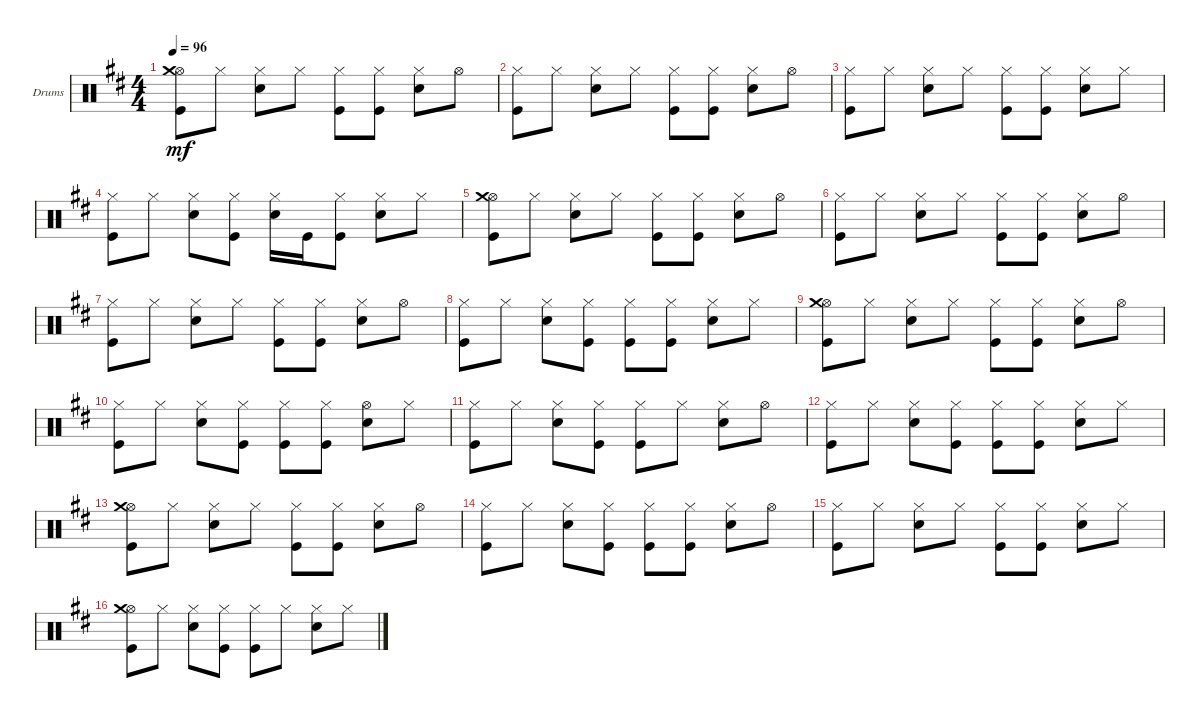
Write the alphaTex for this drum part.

\defaultSystemsLayout 4
\bracketExtendMode groupsimilarinstruments
\firstSystemTrackNameOrientation horizontal
\otherSystemsTrackNameOrientation horizontal
\track ("Drumkit" "Drums") {instrument percussion}
\staff {score}
\articulation defaults
\ts (4 4)
\tempo 96
\clef neutral
\ks d
("Hi-Hat (open)" "Crash medium (hit)" "Kick (hit)").8{dy mf} "Hi-Hat (closed)".8 ("Hi-Hat (closed)" "Snare (hit) 2").8 "Hi-Hat (closed)".8 ("Hi-Hat (closed)" "Kick (hit)").8 ("Hi-Hat (closed)" "Kick (hit)").8 ("Hi-Hat (closed)" "Snare (hit) 2").8 "Hi-Hat (open)".8 |
("Hi-Hat (closed)" "Kick (hit)").8 "Hi-Hat (closed)".8 ("Hi-Hat (closed)" "Snare (hit) 2").8 "Hi-Hat (closed)".8 ("Hi-Hat (closed)" "Kick (hit)").8 ("Hi-Hat (closed)" "Kick (hit)").8 ("Hi-Hat (closed)" "Snare (hit) 2").8 "Hi-Hat (open)".8 |
("Hi-Hat (closed)" "Kick (hit)").8 "Hi-Hat (closed)".8 ("Hi-Hat (closed)" "Snare (hit) 2").8 "Hi-Hat (closed)".8 ("Hi-Hat (closed)" "Kick (hit)").8 ("Hi-Hat (closed)" "Kick (hit)").8 ("Hi-Hat (closed)" "Snare (hit) 2").8 "Hi-Hat (closed)".8 |
("Hi-Hat (closed)" "Kick (hit)").8 "Hi-Hat (closed)".8 ("Hi-Hat (closed)" "Snare (hit) 2").8 ("Hi-Hat (closed)" "Kick (hit)").8 ("Hi-Hat (closed)" "Snare (hit) 2").16 "Kick (hit)".16 ("Hi-Hat (closed)" "Kick (hit)").8 ("Hi-Hat (closed)" "Snare (hit) 2").8 "Hi-Hat (closed)".8 |
("Hi-Hat (open)" "Crash medium (hit)" "Kick (hit)").8 "Hi-Hat (closed)".8 ("Hi-Hat (closed)" "Snare (hit) 2").8 "Hi-Hat (closed)".8 ("Hi-Hat (closed)" "Kick (hit)").8 ("Hi-Hat (closed)" "Kick (hit)").8 ("Hi-Hat (closed)" "Snare (hit) 2").8 "Hi-Hat (open)".8 |
("Hi-Hat (closed)" "Kick (hit)").8 "Hi-Hat (closed)".8 ("Hi-Hat (closed)" "Snare (hit) 2").8 "Hi-Hat (closed)".8 ("Hi-Hat (closed)" "Kick (hit)").8 ("Hi-Hat (closed)" "Kick (hit)").8 ("Hi-Hat (closed)" "Snare (hit) 2").8 "Hi-Hat (open)".8 |
("Hi-Hat (closed)" "Kick (hit)").8 "Hi-Hat (closed)".8 ("Hi-Hat (closed)" "Snare (hit) 2").8 "Hi-Hat (closed)".8 ("Hi-Hat (closed)" "Kick (hit)").8 ("Hi-Hat (closed)" "Kick (hit)").8 ("Hi-Hat (closed)" "Snare (hit) 2").8 "Hi-Hat (open)".8 |
("Hi-Hat (closed)" "Kick (hit)").8 "Hi-Hat (closed)".8 ("Hi-Hat (closed)" "Snare (hit) 2").8 ("Hi-Hat (closed)" "Kick (hit)").8 ("Hi-Hat (closed)" "Kick (hit)").8 ("Hi-Hat (closed)" "Kick (hit)").8 ("Hi-Hat (closed)" "Snare (hit) 2").8 "Hi-Hat (closed)".8 |
("Hi-Hat (open)" "Crash medium (hit)" "Kick (hit)").8 "Hi-Hat (closed)".8 ("Hi-Hat (closed)" "Snare (hit) 2").8 "Hi-Hat (closed)".8 ("Hi-Hat (closed)" "Kick (hit)").8 ("Hi-Hat (closed)" "Kick (hit)").8 ("Hi-Hat (closed)" "Snare (hit) 2").8 "Hi-Hat (open)".8 |
("Hi-Hat (closed)" "Kick (hit)").8 "Hi-Hat (closed)".8 ("Hi-Hat (closed)" "Snare (hit) 2").8 ("Hi-Hat (closed)" "Kick (hit)").8 ("Hi-Hat (closed)" "Kick (hit)").8 ("Hi-Hat (closed)" "Kick (hit)").8 ("Hi-Hat (open)" "Snare (hit) 2").8 "Hi-Hat (closed)".8 |
("Kick (hit)" "Hi-Hat (closed)").8 "Hi-Hat (closed)".8 ("Hi-Hat (closed)" "Snare (hit) 2").8 ("Hi-Hat (closed)" "Kick (hit)").8 ("Kick (hit)" "Hi-Hat (closed)").8 "Hi-Hat (closed)".8 ("Hi-Hat (closed)" "Snare (hit) 2").8 "Hi-Hat (open)".8 |
("Kick (hit)" "Hi-Hat (closed)").8 "Hi-Hat (closed)".8 ("Hi-Hat (closed)" "Snare (hit) 2").8 ("Hi-Hat (closed)" "Kick (hit)").8 ("Hi-Hat (closed)" "Kick (hit)").8 ("Hi-Hat (closed)" "Kick (hit)").8 ("Hi-Hat (closed)" "Snare (hit) 2").8 "Hi-Hat (closed)".8 |
("Hi-Hat (open)" "Kick (hit)" "Crash medium (hit)").8 "Hi-Hat (closed)".8 ("Hi-Hat (closed)" "Snare (hit) 2").8 "Hi-Hat (closed)".8 ("Hi-Hat (closed)" "Kick (hit)").8 ("Hi-Hat (closed)" "Kick (hit)").8 ("Snare (hit) 2" "Hi-Hat (closed)").8 "Hi-Hat (open)".8 |
("Kick (hit)" "Hi-Hat (closed)").8 "Hi-Hat (closed)".8 ("Hi-Hat (closed)" "Snare (hit) 2").8 ("Hi-Hat (closed)" "Kick (hit)").8 ("Kick (hit)" "Hi-Hat (closed)").8 ("Hi-Hat (closed)" "Kick (hit)").8 ("Hi-Hat (closed)" "Snare (hit) 2").8 "Hi-Hat (open)".8 |
("Hi-Hat (closed)" "Kick (hit)").8 "Hi-Hat (closed)".8 ("Hi-Hat (closed)" "Snare (hit) 2").8 "Hi-Hat (closed)".8 ("Hi-Hat (closed)" "Kick (hit)").8 ("Hi-Hat (closed)" "Kick (hit)").8 ("Hi-Hat (closed)" "Snare (hit) 2").8 "Hi-Hat (closed)".8 |
("Hi-Hat (open)" "Kick (hit)" "Crash medium (hit)").8 "Hi-Hat (closed)".8 ("Hi-Hat (closed)" "Snare (hit) 2").8 ("Hi-Hat (closed)" "Kick (hit)").8 ("Hi-Hat (closed)" "Kick (hit)").8 "Hi-Hat (closed)".8 ("Hi-Hat (closed)" "Snare (hit) 2").8 "Hi-Hat (closed)".8
